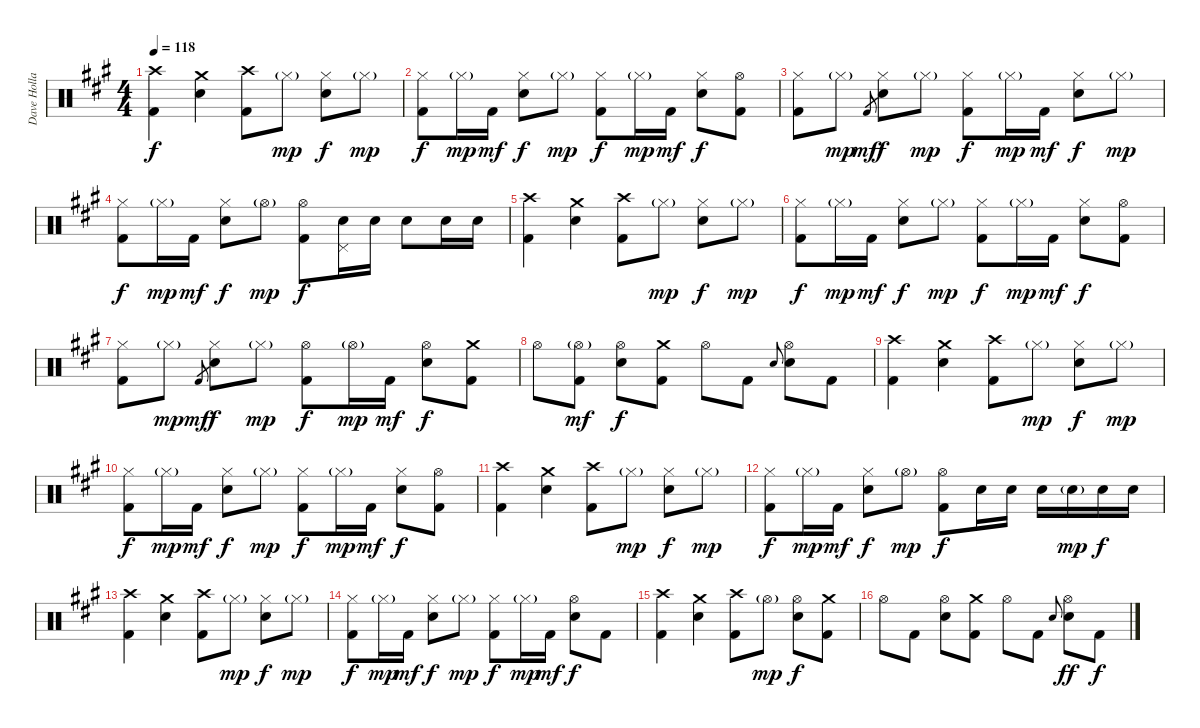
\track ("Dave Holland" "Dave Holla") {instrument percussion}
\staff {score}
\articulation defaults
\ts (4 4)
\tempo 118
\clef neutral
\ks f#minor
("Crash high (hit)" "Kick (hit) 2").4{dy f} ("Crash medium (hit)" "Snare (hit) 2").4 ("Crash high (hit)" "Kick (hit) 2").8 "Hi-Hat (closed)"{g}.8{dy mp} ("Hi-Hat (closed)" "Snare (hit) 2").8{dy f} "Hi-Hat (closed)"{g}.8{dy mp} |
("Hi-Hat (closed)" "Kick (hit) 2").8{dy f} "Hi-Hat (closed)"{g}.16{dy mp} "Kick (hit) 2".16{dy mf} ("Hi-Hat (closed)" "Snare (hit) 2").8{dy f} "Hi-Hat (closed)"{g}.8{dy mp} ("Hi-Hat (closed)" "Kick (hit) 2").8{dy f} "Hi-Hat (closed)"{g}.16{dy mp} "Kick (hit) 2".16{dy mf} ("Hi-Hat (closed)" "Snare (hit) 2").8{dy f} ("Hi-Hat (open)" "Kick (hit) 2").8 |
("Hi-Hat (closed)" "Kick (hit) 2").8 "Hi-Hat (closed)"{g}.8{dy mp} "Kick (hit) 2".8{gr dy mf} ("Hi-Hat (closed)" "Snare (hit) 2").8{dy f} "Hi-Hat (closed)"{g}.8{dy mp} ("Hi-Hat (closed)" "Kick (hit) 2").8{dy f} "Hi-Hat (closed)"{g}.16{dy mp} "Kick (hit) 2".16{dy mf} ("Hi-Hat (closed)" "Snare (hit) 2").8{dy f} "Hi-Hat (closed)"{g}.8{dy mp} |
("Hi-Hat (closed)" "Kick (hit) 2").8{dy f} "Hi-Hat (closed)"{g}.16{dy mp} "Kick (hit) 2".16{dy mf} ("Hi-Hat (closed)" "Snare (hit) 2").8{dy f} "Hi-Hat (open)"{g}.8{dy mp} ("Hi-Hat (open)" "Kick (hit) 2").8{dy f} ("Pedal Hi-Hat (hit)" "Snare (hit) 2").16 "Snare (hit) 2".16 "Snare (hit) 2".8 "Snare (hit) 2".16 "Snare (hit) 2".16 |
("Crash high (hit)" "Kick (hit) 2").4 ("Crash medium (hit)" "Snare (hit) 2").4 ("Crash high (hit)" "Kick (hit) 2").8 "Hi-Hat (closed)"{g}.8{dy mp} ("Hi-Hat (closed)" "Snare (hit) 2").8{dy f} "Hi-Hat (closed)"{g}.8{dy mp} |
("Hi-Hat (closed)" "Kick (hit) 2").8{dy f} "Hi-Hat (closed)"{g}.16{dy mp} "Kick (hit) 2".16{dy mf} ("Hi-Hat (closed)" "Snare (hit) 2").8{dy f} "Hi-Hat (closed)"{g}.8{dy mp} ("Hi-Hat (closed)" "Kick (hit) 2").8{dy f} "Hi-Hat (closed)"{g}.16{dy mp} "Kick (hit) 2".16{dy mf} ("Hi-Hat (closed)" "Snare (hit) 2").8{dy f} ("Hi-Hat (open)" "Kick (hit) 2").8 |
("Hi-Hat (closed)" "Kick (hit) 2").8 "Hi-Hat (closed)"{g}.8{dy mp} "Kick (hit) 2".8{gr dy mf} ("Hi-Hat (closed)" "Snare (hit) 2").8{dy f} "Hi-Hat (closed)"{g}.8{dy mp} ("Hi-Hat (open)" "Kick (hit) 2").8{dy f} "Hi-Hat (open)"{g}.16{dy mp} "Kick (hit) 2".16{dy mf} ("Hi-Hat (open)" "Snare (hit) 2").8{dy f} ("Crash medium (hit)" "Kick (hit) 2").8 |
"Hi-Hat (open)".8 ("Hi-Hat (open)"{g} "Kick (hit) 2").8{dy mf} ("Hi-Hat (open)" "Snare (hit) 2").8{dy f} ("Crash medium (hit)" "Kick (hit) 2").8 "Hi-Hat (open)".8 "Kick (hit) 2".8 "Snare (hit) 2".8{gr onbeat} ("Hi-Hat (open)" "Snare (hit) 2").8 "Kick (hit) 2".8 |
("Crash high (hit)" "Kick (hit) 2").4 ("Crash medium (hit)" "Snare (hit) 2").4 ("Crash high (hit)" "Kick (hit) 2").8 "Hi-Hat (closed)"{g}.8{dy mp} ("Hi-Hat (closed)" "Snare (hit) 2").8{dy f} "Hi-Hat (closed)"{g}.8{dy mp} |
("Hi-Hat (closed)" "Kick (hit) 2").8{dy f} "Hi-Hat (closed)"{g}.16{dy mp} "Kick (hit) 2".16{dy mf} ("Hi-Hat (closed)" "Snare (hit) 2").8{dy f} "Hi-Hat (closed)"{g}.8{dy mp} ("Hi-Hat (closed)" "Kick (hit) 2").8{dy f} "Hi-Hat (closed)"{g}.16{dy mp} "Kick (hit) 2".16{dy mf} ("Hi-Hat (closed)" "Snare (hit) 2").8{dy f} ("Hi-Hat (open)" "Kick (hit) 2").8 |
("Crash high (hit)" "Kick (hit) 2").4 ("Crash medium (hit)" "Snare (hit) 2").4 ("Crash high (hit)" "Kick (hit) 2").8 "Hi-Hat (closed)"{g}.8{dy mp} ("Hi-Hat (closed)" "Snare (hit) 2").8{dy f} "Hi-Hat (closed)"{g}.8{dy mp} |
("Hi-Hat (closed)" "Kick (hit) 2").8{dy f} "Hi-Hat (closed)"{g}.16{dy mp} "Kick (hit) 2".16{dy mf} ("Hi-Hat (closed)" "Snare (hit) 2").8{dy f} "Hi-Hat (open)"{g}.8{dy mp} ("Hi-Hat (open)" "Kick (hit) 2").8{dy f} "Snare (hit) 2".16 "Snare (hit) 2".16 "Snare (hit) 2".16 "Snare (hit) 2"{g}.16{dy mp} "Snare (hit) 2".16{dy f} "Snare (hit) 2".16 |
("Crash high (hit)" "Kick (hit) 2").4 ("Crash medium (hit)" "Snare (hit) 2").4 ("Crash high (hit)" "Kick (hit) 2").8 "Hi-Hat (closed)"{g}.8{dy mp} ("Hi-Hat (closed)" "Snare (hit) 2").8{dy f} "Hi-Hat (closed)"{g}.8{dy mp} |
("Hi-Hat (closed)" "Kick (hit) 2").8{dy f} "Hi-Hat (closed)"{g}.16{dy mp} "Kick (hit) 2".16{dy mf} ("Hi-Hat (closed)" "Snare (hit) 2").8{dy f} "Hi-Hat (closed)"{g}.8{dy mp} ("Hi-Hat (closed)" "Kick (hit) 2").8{dy f} "Hi-Hat (closed)"{g}.16{dy mp} "Kick (hit) 2".16{dy mf} ("Hi-Hat (open)" "Snare (hit) 2").8{dy f} "Kick (hit) 2".8 |
("Crash high (hit)" "Kick (hit) 2").4 ("Crash medium (hit)" "Snare (hit) 2").4 ("Crash high (hit)" "Kick (hit) 2").8 "Hi-Hat (open)"{g}.8{dy mp} ("Hi-Hat (open)" "Snare (hit) 2").8{dy f} ("Crash medium (hit)" "Kick (hit) 2").8 |
"Hi-Hat (open)".8 "Kick (hit) 2".8 ("Hi-Hat (open)" "Snare (hit) 2").8 ("Crash medium (hit)" "Kick (hit) 2").8 "Hi-Hat (open)".8 "Kick (hit) 2".8 "Snare (hit) 2".8{gr onbeat} ("Hi-Hat (open)" "Snare (hit) 2").8{dy ff} "Kick (hit) 2".8{dy f}
